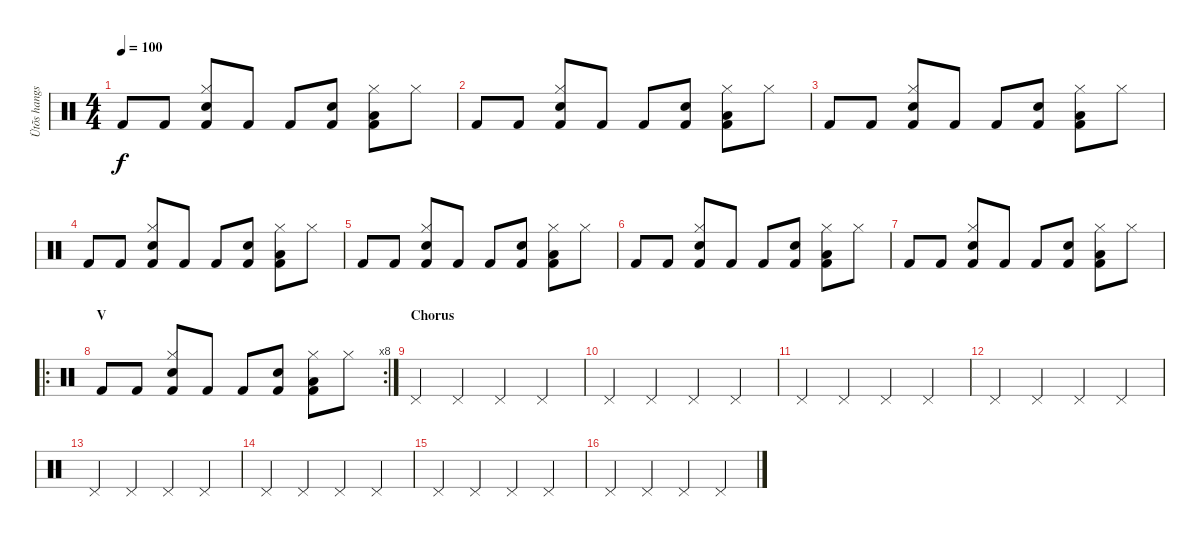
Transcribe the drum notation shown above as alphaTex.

\track ("Ütõs hangszer" "Ütõs hangs") {instrument percussion}
\staff {score}
\articulation defaults
\ts (4 4)
\tempo 100
\clef neutral
\ks c "Kick (hit) 2".8{dy f} "Kick (hit) 2".8
("Kick (hit) 2" "Hi-Hat (closed)" "Snare (hit) 2").8 "Kick (hit) 2".8 "Kick (hit) 2".8 ("Kick (hit) 2" "Snare (hit) 2").8 ("Kick (hit) 2" "Hi-Hat (closed)" "Low Tom (hit)").8 "Hi-Hat (closed)".8 |
"Kick (hit) 2".8 "Kick (hit) 2".8 ("Kick (hit) 2" "Hi-Hat (closed)" "Snare (hit) 2").8 "Kick (hit) 2".8 "Kick (hit) 2".8 ("Kick (hit) 2" "Snare (hit) 2").8 ("Kick (hit) 2" "Hi-Hat (closed)" "Low Tom (hit)").8 "Hi-Hat (closed)".8 |
"Kick (hit) 2".8 "Kick (hit) 2".8 ("Kick (hit) 2" "Hi-Hat (closed)" "Snare (hit) 2").8 "Kick (hit) 2".8 "Kick (hit) 2".8 ("Kick (hit) 2" "Snare (hit) 2").8 ("Kick (hit) 2" "Hi-Hat (closed)" "Low Tom (hit)").8 "Hi-Hat (closed)".8 |
"Kick (hit) 2".8 "Kick (hit) 2".8 ("Kick (hit) 2" "Hi-Hat (closed)" "Snare (hit) 2").8 "Kick (hit) 2".8 "Kick (hit) 2".8 ("Kick (hit) 2" "Snare (hit) 2").8 ("Kick (hit) 2" "Hi-Hat (closed)" "Low Tom (hit)").8 "Hi-Hat (closed)".8 |
"Kick (hit) 2".8 "Kick (hit) 2".8 ("Kick (hit) 2" "Hi-Hat (closed)" "Snare (hit) 2").8 "Kick (hit) 2".8 "Kick (hit) 2".8 ("Kick (hit) 2" "Snare (hit) 2").8 ("Kick (hit) 2" "Hi-Hat (closed)" "Low Tom (hit)").8 "Hi-Hat (closed)".8 |
"Kick (hit) 2".8 "Kick (hit) 2".8 ("Kick (hit) 2" "Hi-Hat (closed)" "Snare (hit) 2").8 "Kick (hit) 2".8 "Kick (hit) 2".8 ("Kick (hit) 2" "Snare (hit) 2").8 ("Kick (hit) 2" "Hi-Hat (closed)" "Low Tom (hit)").8 "Hi-Hat (closed)".8 |
"Kick (hit) 2".8 "Kick (hit) 2".8 ("Kick (hit) 2" "Hi-Hat (closed)" "Snare (hit) 2").8 "Kick (hit) 2".8 "Kick (hit) 2".8 ("Kick (hit) 2" "Snare (hit) 2").8 ("Kick (hit) 2" "Hi-Hat (closed)" "Low Tom (hit)").8 "Hi-Hat (closed)".8 |
\ro
\rc 8
\section ("" "V")
"Kick (hit) 2".8 "Kick (hit) 2".8 ("Kick (hit) 2" "Hi-Hat (closed)" "Snare (hit) 2").8 "Kick (hit) 2".8 "Kick (hit) 2".8 ("Kick (hit) 2" "Snare (hit) 2").8 ("Kick (hit) 2" "Hi-Hat (closed)" "Low Tom (hit)").8 "Hi-Hat (closed)".8 |
\section ("" "Chorus")
"Pedal Hi-Hat (hit)".4 "Pedal Hi-Hat (hit)".4 "Pedal Hi-Hat (hit)".4 "Pedal Hi-Hat (hit)".4 |
"Pedal Hi-Hat (hit)".4 "Pedal Hi-Hat (hit)".4 "Pedal Hi-Hat (hit)".4 "Pedal Hi-Hat (hit)".4 |
"Pedal Hi-Hat (hit)".4 "Pedal Hi-Hat (hit)".4 "Pedal Hi-Hat (hit)".4 "Pedal Hi-Hat (hit)".4 |
"Pedal Hi-Hat (hit)".4 "Pedal Hi-Hat (hit)".4 "Pedal Hi-Hat (hit)".4 "Pedal Hi-Hat (hit)".4 |
"Pedal Hi-Hat (hit)".4 "Pedal Hi-Hat (hit)".4 "Pedal Hi-Hat (hit)".4 "Pedal Hi-Hat (hit)".4 |
"Pedal Hi-Hat (hit)".4 "Pedal Hi-Hat (hit)".4 "Pedal Hi-Hat (hit)".4 "Pedal Hi-Hat (hit)".4 |
"Pedal Hi-Hat (hit)".4 "Pedal Hi-Hat (hit)".4 "Pedal Hi-Hat (hit)".4 "Pedal Hi-Hat (hit)".4 |
"Pedal Hi-Hat (hit)".4 "Pedal Hi-Hat (hit)".4 "Pedal Hi-Hat (hit)".4 "Pedal Hi-Hat (hit)".4
